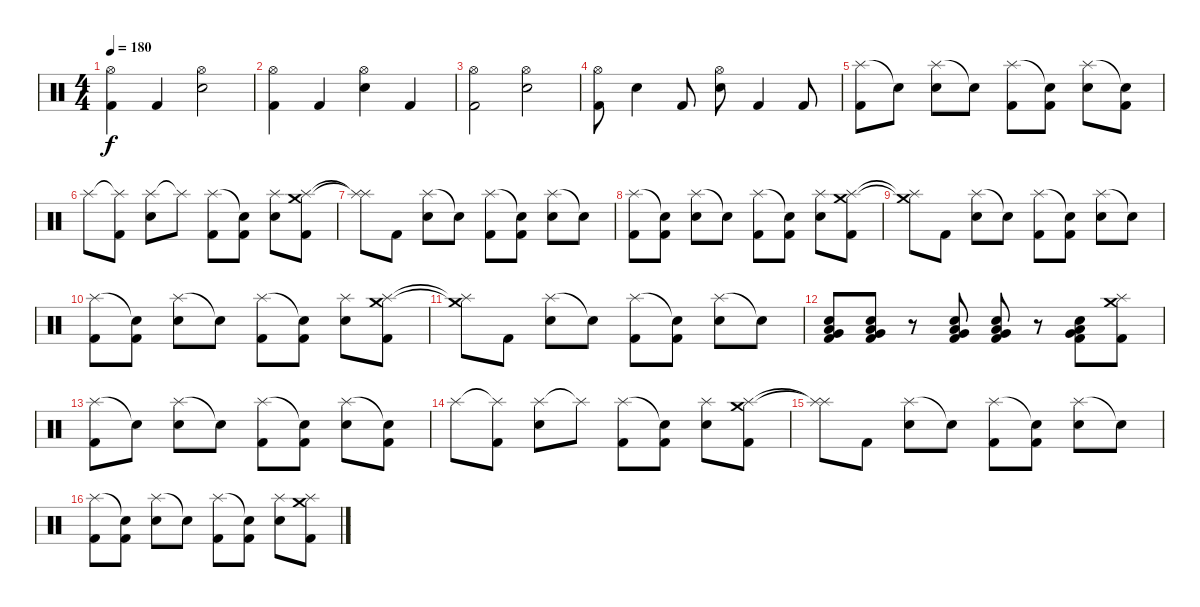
\track (" " " ") {instrument percussion}
\staff {score}
\articulation defaults
\ts (4 4)
\tempo 180
\clef neutral
\ks c
("Hi-Hat (open)" "Kick (hit) 2").4{dy f} "Kick (hit) 2".4 ("Hi-Hat (open)" "Electric Snare (hit)").2 |
("Hi-Hat (open)" "Kick (hit) 2").4 "Kick (hit) 2".4 ("Hi-Hat (open)" "Electric Snare (hit)").4 "Kick (hit) 2".4 |
("Hi-Hat (open)" "Kick (hit) 2").2 ("Hi-Hat (open)" "Electric Snare (hit)").2 |
("Hi-Hat (open)" "Kick (hit) 2").8 "Electric Snare (hit)".4 "Kick (hit) 2".8 ("Hi-Hat (open)" "Electric Snare (hit)").8 "Kick (hit) 2".4 "Kick (hit) 2".8 |
("Splash (hit)" "Kick (hit) 2").8 "Snare (hit)"{t}.8 ("Splash (hit)" "Electric Snare (hit)").8 "Snare (hit)"{t}.8 ("Splash (hit)" "Kick (hit) 2").8 ("Snare (hit)"{t} "Kick (hit) 2").8 ("Splash (hit)" "Electric Snare (hit)").8 ("Snare (hit)"{t} "Kick (hit) 2").8 |
"Splash (hit)".8 ("Splash (hit)"{t} "Kick (hit) 2").8 ("Splash (hit)" "Electric Snare (hit)").8 "Splash (hit)"{t}.8 ("Splash (hit)" "Kick (hit) 2").8 ("Snare (hit)"{t} "Kick (hit) 2").8 ("Splash (hit)" "Electric Snare (hit)").8 ("Crash medium (hit)" "Splash (hit)" "Kick (hit) 2").8 |
("Splash (hit)"{t} "Splash (hit)"{t}).8 "Kick (hit) 2".8 ("Splash (hit)" "Electric Snare (hit)").8 "Snare (hit)"{t}.8 ("Splash (hit)" "Kick (hit) 2").8 ("Snare (hit)"{t} "Kick (hit) 2").8 ("Splash (hit)" "Electric Snare (hit)").8 "Snare (hit)"{t}.8 |
("Splash (hit)" "Kick (hit) 2").8 ("Snare (hit)"{t} "Kick (hit) 2").8 ("Splash (hit)" "Electric Snare (hit)").8 "Snare (hit)"{t}.8 ("Splash (hit)" "Kick (hit) 2").8 ("Snare (hit)"{t} "Kick (hit) 2").8 ("Splash (hit)" "Electric Snare (hit)").8 ("Crash medium (hit)" "Splash (hit)" "Kick (hit) 2").8 |
("Crash medium (hit)"{t} "Splash (hit)"{t}).8 "Kick (hit) 2".8 ("Splash (hit)" "Electric Snare (hit)").8 "Snare (hit)"{t}.8 ("Splash (hit)" "Kick (hit) 2").8 ("Snare (hit)"{t} "Kick (hit) 2").8 ("Splash (hit)" "Electric Snare (hit)").8 "Snare (hit)"{t}.8 |
("Splash (hit)" "Kick (hit) 2").8 ("Snare (hit)"{t} "Kick (hit) 2").8 ("Splash (hit)" "Electric Snare (hit)").8 "Snare (hit)"{t}.8 ("Splash (hit)" "Kick (hit) 2").8 ("Snare (hit)"{t} "Kick (hit) 2").8 ("Splash (hit)" "Electric Snare (hit)").8 ("Crash medium (hit)" "Splash (hit)" "Kick (hit) 2").8 |
("Crash medium (hit)"{t} "Splash (hit)"{t}).8 "Kick (hit) 2".8 ("Splash (hit)" "Electric Snare (hit)").8 "Snare (hit)"{t}.8 ("Splash (hit)" "Kick (hit) 2").8 ("Snare (hit)"{t} "Kick (hit) 2").8 ("Splash (hit)" "Electric Snare (hit)").8 "Snare (hit)"{t}.8 |
("Electric Snare (hit)" "Low Floor Tom (hit)" "Very Low Tom (hit)" "Kick (hit) 2").8 ("Electric Snare (hit)" "Low Floor Tom (hit)" "Very Low Tom (hit)" "Kick (hit) 2").8 r.8 ("Electric Snare (hit)" "Low Floor Tom (hit)" "Very Low Tom (hit)" "Kick (hit) 2").8 ("Electric Snare (hit)" "Low Floor Tom (hit)" "Very Low Tom (hit)" "Kick (hit) 2").8 r.8 ("Electric Snare (hit)" "Low Floor Tom (hit)" "Very Low Tom (hit)" "Kick (hit) 2").8 ("Splash (hit)" "Crash medium (hit)" "Kick (hit) 2").8 |
("Splash (hit)" "Kick (hit) 2").8 "Snare (hit)"{t}.8 ("Splash (hit)" "Electric Snare (hit)").8 "Snare (hit)"{t}.8 ("Splash (hit)" "Kick (hit) 2").8 ("Snare (hit)"{t} "Kick (hit) 2").8 ("Splash (hit)" "Electric Snare (hit)").8 ("Snare (hit)"{t} "Kick (hit) 2").8 |
"Splash (hit)".8 ("Splash (hit)"{t} "Kick (hit) 2").8 ("Splash (hit)" "Electric Snare (hit)").8 "Splash (hit)"{t}.8 ("Splash (hit)" "Kick (hit) 2").8 ("Snare (hit)"{t} "Kick (hit) 2").8 ("Splash (hit)" "Electric Snare (hit)").8 ("Crash medium (hit)" "Splash (hit)" "Kick (hit) 2").8 |
("Splash (hit)"{t} "Splash (hit)"{t}).8 "Kick (hit) 2".8 ("Splash (hit)" "Electric Snare (hit)").8 "Snare (hit)"{t}.8 ("Splash (hit)" "Kick (hit) 2").8 ("Snare (hit)"{t} "Kick (hit) 2").8 ("Splash (hit)" "Electric Snare (hit)").8 "Snare (hit)"{t}.8 |
("Splash (hit)" "Kick (hit) 2").8 ("Snare (hit)"{t} "Kick (hit) 2").8 ("Splash (hit)" "Electric Snare (hit)").8 "Snare (hit)"{t}.8 ("Splash (hit)" "Kick (hit) 2").8 ("Snare (hit)"{t} "Kick (hit) 2").8 ("Splash (hit)" "Electric Snare (hit)").8 ("Crash medium (hit)" "Splash (hit)" "Kick (hit) 2").8
